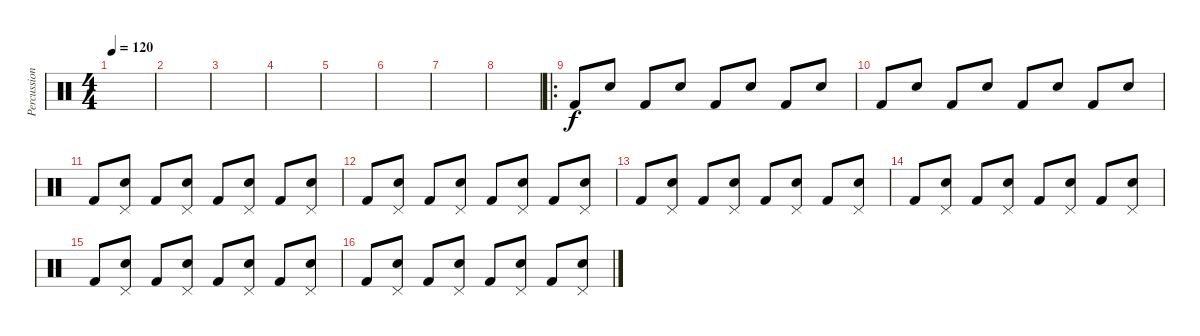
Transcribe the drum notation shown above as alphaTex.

\track ("Percussion" "Percussion") {instrument percussion}
\staff {score}
\articulation defaults
\ts (4 4)
\tempo 120
\clef neutral
\ks c
|
|
|
|
|
|
|
|
\ro "Kick (hit) 2".8 "Snare (hit) 2".8 "Kick (hit) 2".8 "Snare (hit) 2".8 "Kick (hit) 2".8 "Snare (hit) 2".8 "Kick (hit) 2".8 "Snare (hit) 2".8
|
"Kick (hit) 2".8 "Snare (hit) 2".8 "Kick (hit) 2".8 "Snare (hit) 2".8 "Kick (hit) 2".8 "Snare (hit) 2".8 "Kick (hit) 2".8 "Snare (hit) 2".8 |
"Kick (hit) 2".8 ("Snare (hit) 2" "Pedal Hi-Hat (hit)").8 "Kick (hit) 2".8 ("Snare (hit) 2" "Pedal Hi-Hat (hit)").8 "Kick (hit) 2".8 ("Snare (hit) 2" "Pedal Hi-Hat (hit)").8 "Kick (hit) 2".8 ("Snare (hit) 2" "Pedal Hi-Hat (hit)").8 |
"Kick (hit) 2".8 ("Snare (hit) 2" "Pedal Hi-Hat (hit)").8 "Kick (hit) 2".8 ("Snare (hit) 2" "Pedal Hi-Hat (hit)").8 "Kick (hit) 2".8 ("Snare (hit) 2" "Pedal Hi-Hat (hit)").8 "Kick (hit) 2".8 ("Snare (hit) 2" "Pedal Hi-Hat (hit)").8 |
"Kick (hit) 2".8 ("Snare (hit) 2" "Pedal Hi-Hat (hit)").8 "Kick (hit) 2".8 ("Snare (hit) 2" "Pedal Hi-Hat (hit)").8 "Kick (hit) 2".8 ("Snare (hit) 2" "Pedal Hi-Hat (hit)").8 "Kick (hit) 2".8 ("Snare (hit) 2" "Pedal Hi-Hat (hit)").8 |
"Kick (hit) 2".8 ("Snare (hit) 2" "Pedal Hi-Hat (hit)").8 "Kick (hit) 2".8 ("Snare (hit) 2" "Pedal Hi-Hat (hit)").8 "Kick (hit) 2".8 ("Snare (hit) 2" "Pedal Hi-Hat (hit)").8 "Kick (hit) 2".8 ("Snare (hit) 2" "Pedal Hi-Hat (hit)").8 |
"Kick (hit) 2".8 ("Snare (hit) 2" "Pedal Hi-Hat (hit)").8 "Kick (hit) 2".8 ("Snare (hit) 2" "Pedal Hi-Hat (hit)").8 "Kick (hit) 2".8 ("Snare (hit) 2" "Pedal Hi-Hat (hit)").8 "Kick (hit) 2".8 ("Snare (hit) 2" "Pedal Hi-Hat (hit)").8 |
"Kick (hit) 2".8 ("Snare (hit) 2" "Pedal Hi-Hat (hit)").8 "Kick (hit) 2".8 ("Snare (hit) 2" "Pedal Hi-Hat (hit)").8 "Kick (hit) 2".8 ("Snare (hit) 2" "Pedal Hi-Hat (hit)").8 "Kick (hit) 2".8 ("Snare (hit) 2" "Pedal Hi-Hat (hit)").8
